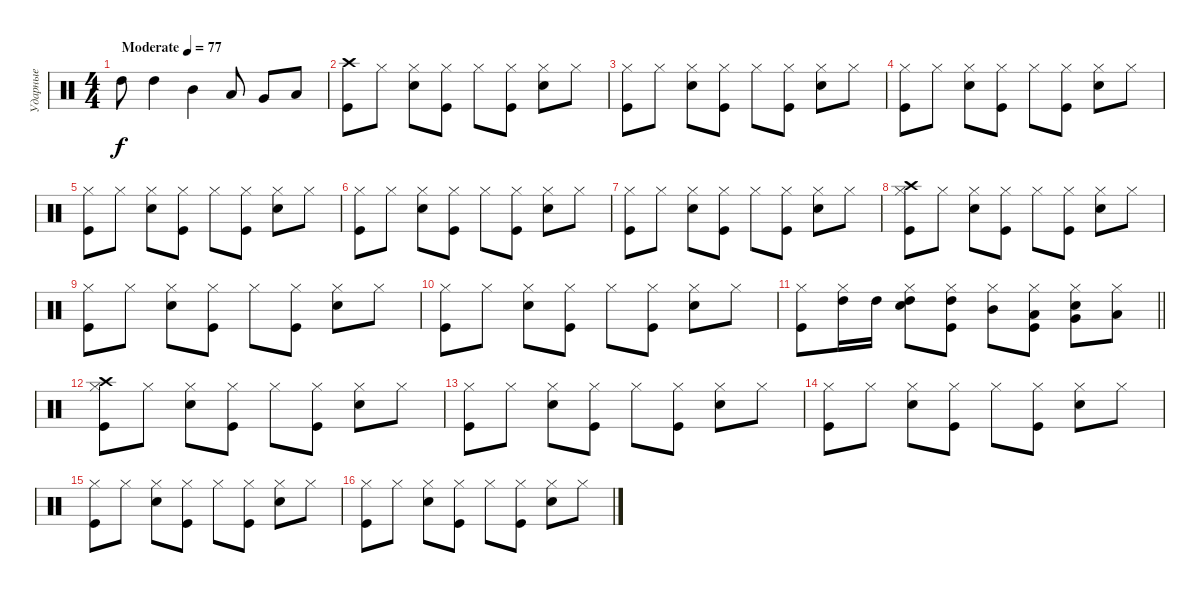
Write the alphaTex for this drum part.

\track ("Ударные" "Ударные") {solo instrument percussion}
\staff {score}
\articulation defaults
\ts (4 4)
\tempo (77 "Moderate")
\clef neutral
\ks c "High Tom (hit)".8{dy f} "High Tom (hit)".4 "Mid Tom (hit)".4 "Low Tom (hit)".8 "Very Low Tom (hit)".8 "Low Floor Tom (hit)".8
|
("Kick (hit)" "Crash high (hit)").8 "Hi-Hat (closed)".8 ("Snare (hit) 2" "Hi-Hat (closed)").8 ("Kick (hit)" "Hi-Hat (closed)").8 "Hi-Hat (closed)".8 ("Kick (hit)" "Hi-Hat (closed)").8 ("Snare (hit) 2" "Hi-Hat (closed)").8 "Hi-Hat (closed)".8 |
("Kick (hit)" "Hi-Hat (closed)").8 "Hi-Hat (closed)".8 ("Snare (hit) 2" "Hi-Hat (closed)").8 ("Kick (hit)" "Hi-Hat (closed)").8 "Hi-Hat (closed)".8 ("Kick (hit)" "Hi-Hat (closed)").8 ("Snare (hit) 2" "Hi-Hat (closed)").8 "Hi-Hat (closed)".8 |
("Kick (hit)" "Hi-Hat (closed)").8 "Hi-Hat (closed)".8 ("Snare (hit) 2" "Hi-Hat (closed)").8 ("Kick (hit)" "Hi-Hat (closed)").8 "Hi-Hat (closed)".8 ("Kick (hit)" "Hi-Hat (closed)").8 ("Snare (hit) 2" "Hi-Hat (closed)").8 "Hi-Hat (closed)".8 |
("Kick (hit)" "Hi-Hat (closed)").8 "Hi-Hat (closed)".8 ("Snare (hit) 2" "Hi-Hat (closed)").8 ("Kick (hit)" "Hi-Hat (closed)").8 "Hi-Hat (closed)".8 ("Kick (hit)" "Hi-Hat (closed)").8 ("Snare (hit) 2" "Hi-Hat (closed)").8 "Hi-Hat (closed)".8 |
("Kick (hit)" "Hi-Hat (closed)").8 "Hi-Hat (closed)".8 ("Snare (hit) 2" "Hi-Hat (closed)").8 ("Kick (hit)" "Hi-Hat (closed)").8 "Hi-Hat (closed)".8 ("Kick (hit)" "Hi-Hat (closed)").8 ("Snare (hit) 2" "Hi-Hat (closed)").8 "Hi-Hat (closed)".8 |
("Kick (hit)" "Hi-Hat (closed)").8 "Hi-Hat (closed)".8 ("Snare (hit) 2" "Hi-Hat (closed)").8 ("Kick (hit)" "Hi-Hat (closed)").8 "Hi-Hat (closed)".8 ("Kick (hit)" "Hi-Hat (closed)").8 ("Snare (hit) 2" "Hi-Hat (closed)").8 "Hi-Hat (closed)".8 |
("Kick (hit)" "Crash high (hit)" "Hi-Hat (closed)").8 "Hi-Hat (closed)".8 ("Snare (hit) 2" "Hi-Hat (closed)").8 ("Kick (hit)" "Hi-Hat (closed)").8 "Hi-Hat (closed)".8 ("Kick (hit)" "Hi-Hat (closed)").8 ("Snare (hit) 2" "Hi-Hat (closed)").8 "Hi-Hat (closed)".8 |
("Kick (hit)" "Hi-Hat (closed)").8 "Hi-Hat (closed)".8 ("Snare (hit) 2" "Hi-Hat (closed)").8 ("Kick (hit)" "Hi-Hat (closed)").8 "Hi-Hat (closed)".8 ("Kick (hit)" "Hi-Hat (closed)").8 ("Snare (hit) 2" "Hi-Hat (closed)").8 "Hi-Hat (closed)".8 |
("Kick (hit)" "Hi-Hat (closed)").8 "Hi-Hat (closed)".8 ("Snare (hit) 2" "Hi-Hat (closed)").8 ("Kick (hit)" "Hi-Hat (closed)").8 "Hi-Hat (closed)".8 ("Kick (hit)" "Hi-Hat (closed)").8 ("Snare (hit) 2" "Hi-Hat (closed)").8 "Hi-Hat (closed)".8 |
\barLineRight lightlight
("Kick (hit)" "Hi-Hat (closed)").8 ("High Tom (hit)" "Hi-Hat (closed)").16 "High Tom (hit)".16 ("Snare (hit) 2" "High Tom (hit)" "Hi-Hat (closed)").8 ("Kick (hit)" "High Tom (hit)" "Hi-Hat (closed)").8 ("Mid Tom (hit)" "Hi-Hat (closed)").8 ("Kick (hit)" "Low Tom (hit)" "Hi-Hat (closed)").8 ("Snare (hit) 2" "Very Low Tom (hit)" "Hi-Hat (closed)").8 ("Low Floor Tom (hit)" "Hi-Hat (closed)").8 |
("Kick (hit)" "Crash high (hit)" "Hi-Hat (closed)").8 "Hi-Hat (closed)".8 ("Snare (hit) 2" "Hi-Hat (closed)").8 ("Kick (hit)" "Hi-Hat (closed)").8 "Hi-Hat (closed)".8 ("Kick (hit)" "Hi-Hat (closed)").8 ("Snare (hit) 2" "Hi-Hat (closed)").8 "Hi-Hat (closed)".8 |
("Kick (hit)" "Hi-Hat (closed)").8 "Hi-Hat (closed)".8 ("Snare (hit) 2" "Hi-Hat (closed)").8 ("Kick (hit)" "Hi-Hat (closed)").8 "Hi-Hat (closed)".8 ("Kick (hit)" "Hi-Hat (closed)").8 ("Snare (hit) 2" "Hi-Hat (closed)").8 "Hi-Hat (closed)".8 |
("Kick (hit)" "Hi-Hat (closed)").8 "Hi-Hat (closed)".8 ("Snare (hit) 2" "Hi-Hat (closed)").8 ("Kick (hit)" "Hi-Hat (closed)").8 "Hi-Hat (closed)".8 ("Kick (hit)" "Hi-Hat (closed)").8 ("Snare (hit) 2" "Hi-Hat (closed)").8 "Hi-Hat (closed)".8 |
("Kick (hit)" "Hi-Hat (closed)").8 "Hi-Hat (closed)".8 ("Snare (hit) 2" "Hi-Hat (closed)").8 ("Kick (hit)" "Hi-Hat (closed)").8 "Hi-Hat (closed)".8 ("Kick (hit)" "Hi-Hat (closed)").8 ("Snare (hit) 2" "Hi-Hat (closed)").8 "Hi-Hat (closed)".8 |
("Kick (hit)" "Hi-Hat (closed)").8 "Hi-Hat (closed)".8 ("Snare (hit) 2" "Hi-Hat (closed)").8 ("Kick (hit)" "Hi-Hat (closed)").8 "Hi-Hat (closed)".8 ("Kick (hit)" "Hi-Hat (closed)").8 ("Snare (hit) 2" "Hi-Hat (closed)").8 "Hi-Hat (closed)".8
